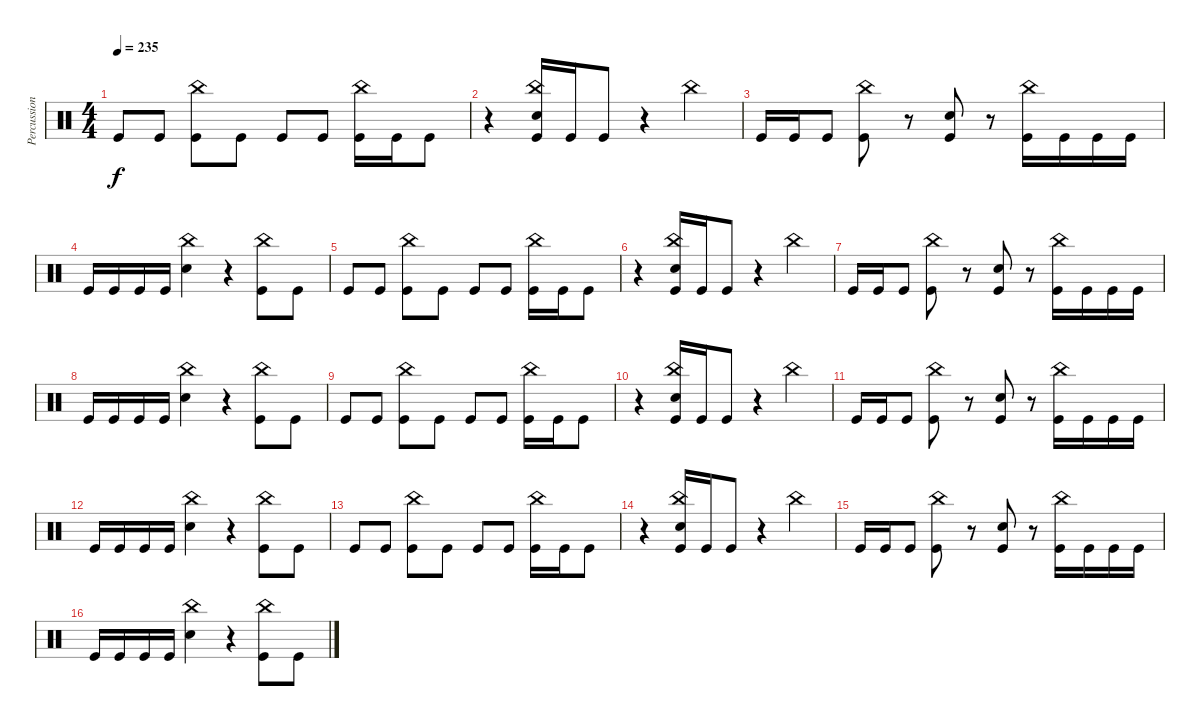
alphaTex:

\track ("Percussion" "Percussion") {instrument percussion}
\staff {score}
\articulation defaults
\ts (4 4)
\tempo 235
\clef neutral
\ks c "Kick (hit)".8{dy f} "Kick (hit)".8
("Kick (hit)" "China (hit)").8 "Kick (hit)".8 "Kick (hit)".8 "Kick (hit)".8 ("Kick (hit)" "China (hit)").16 "Kick (hit)".16 "Kick (hit)".8 |
r.4 ("Kick (hit)" "Snare (hit) 2" "China (hit)").16 "Kick (hit)".16 "Kick (hit)".8 r.4 "China (hit)".4 |
"Kick (hit)".16 "Kick (hit)".16 "Kick (hit)".8 ("Kick (hit)" "China (hit)").8 r.8 ("Kick (hit)" "Snare (hit) 2").8 r.8 ("Kick (hit)" "China (hit)").16 "Kick (hit)".16 "Kick (hit)".16 "Kick (hit)".16 |
"Kick (hit)".16 "Kick (hit)".16 "Kick (hit)".16 "Kick (hit)".16 ("Snare (hit) 2" "China (hit)").4 r.4 ("Kick (hit)" "China (hit)").8 "Kick (hit)".8 |
"Kick (hit)".8 "Kick (hit)".8 ("Kick (hit)" "China (hit)").8 "Kick (hit)".8 "Kick (hit)".8 "Kick (hit)".8 ("Kick (hit)" "China (hit)").16 "Kick (hit)".16 "Kick (hit)".8 |
r.4 ("Kick (hit)" "Snare (hit) 2" "China (hit)").16 "Kick (hit)".16 "Kick (hit)".8 r.4 "China (hit)".4 |
"Kick (hit)".16 "Kick (hit)".16 "Kick (hit)".8 ("Kick (hit)" "China (hit)").8 r.8 ("Kick (hit)" "Snare (hit) 2").8 r.8 ("Kick (hit)" "China (hit)").16 "Kick (hit)".16 "Kick (hit)".16 "Kick (hit)".16 |
"Kick (hit)".16 "Kick (hit)".16 "Kick (hit)".16 "Kick (hit)".16 ("Snare (hit) 2" "China (hit)").4 r.4 ("Kick (hit)" "China (hit)").8 "Kick (hit)".8 |
"Kick (hit)".8 "Kick (hit)".8 ("Kick (hit)" "China (hit)").8 "Kick (hit)".8 "Kick (hit)".8 "Kick (hit)".8 ("Kick (hit)" "China (hit)").16 "Kick (hit)".16 "Kick (hit)".8 |
r.4 ("Kick (hit)" "Snare (hit) 2" "China (hit)").16 "Kick (hit)".16 "Kick (hit)".8 r.4 "China (hit)".4 |
"Kick (hit)".16 "Kick (hit)".16 "Kick (hit)".8 ("Kick (hit)" "China (hit)").8 r.8 ("Kick (hit)" "Snare (hit) 2").8 r.8 ("Kick (hit)" "China (hit)").16 "Kick (hit)".16 "Kick (hit)".16 "Kick (hit)".16 |
"Kick (hit)".16 "Kick (hit)".16 "Kick (hit)".16 "Kick (hit)".16 ("Snare (hit) 2" "China (hit)").4 r.4 ("Kick (hit)" "China (hit)").8 "Kick (hit)".8 |
"Kick (hit)".8 "Kick (hit)".8 ("Kick (hit)" "China (hit)").8 "Kick (hit)".8 "Kick (hit)".8 "Kick (hit)".8 ("Kick (hit)" "China (hit)").16 "Kick (hit)".16 "Kick (hit)".8 |
r.4 ("Kick (hit)" "Snare (hit) 2" "China (hit)").16 "Kick (hit)".16 "Kick (hit)".8 r.4 "China (hit)".4 |
"Kick (hit)".16 "Kick (hit)".16 "Kick (hit)".8 ("Kick (hit)" "China (hit)").8 r.8 ("Kick (hit)" "Snare (hit) 2").8 r.8 ("Kick (hit)" "China (hit)").16 "Kick (hit)".16 "Kick (hit)".16 "Kick (hit)".16 |
"Kick (hit)".16 "Kick (hit)".16 "Kick (hit)".16 "Kick (hit)".16 ("Snare (hit) 2" "China (hit)").4 r.4 ("Kick (hit)" "China (hit)").8 "Kick (hit)".8
